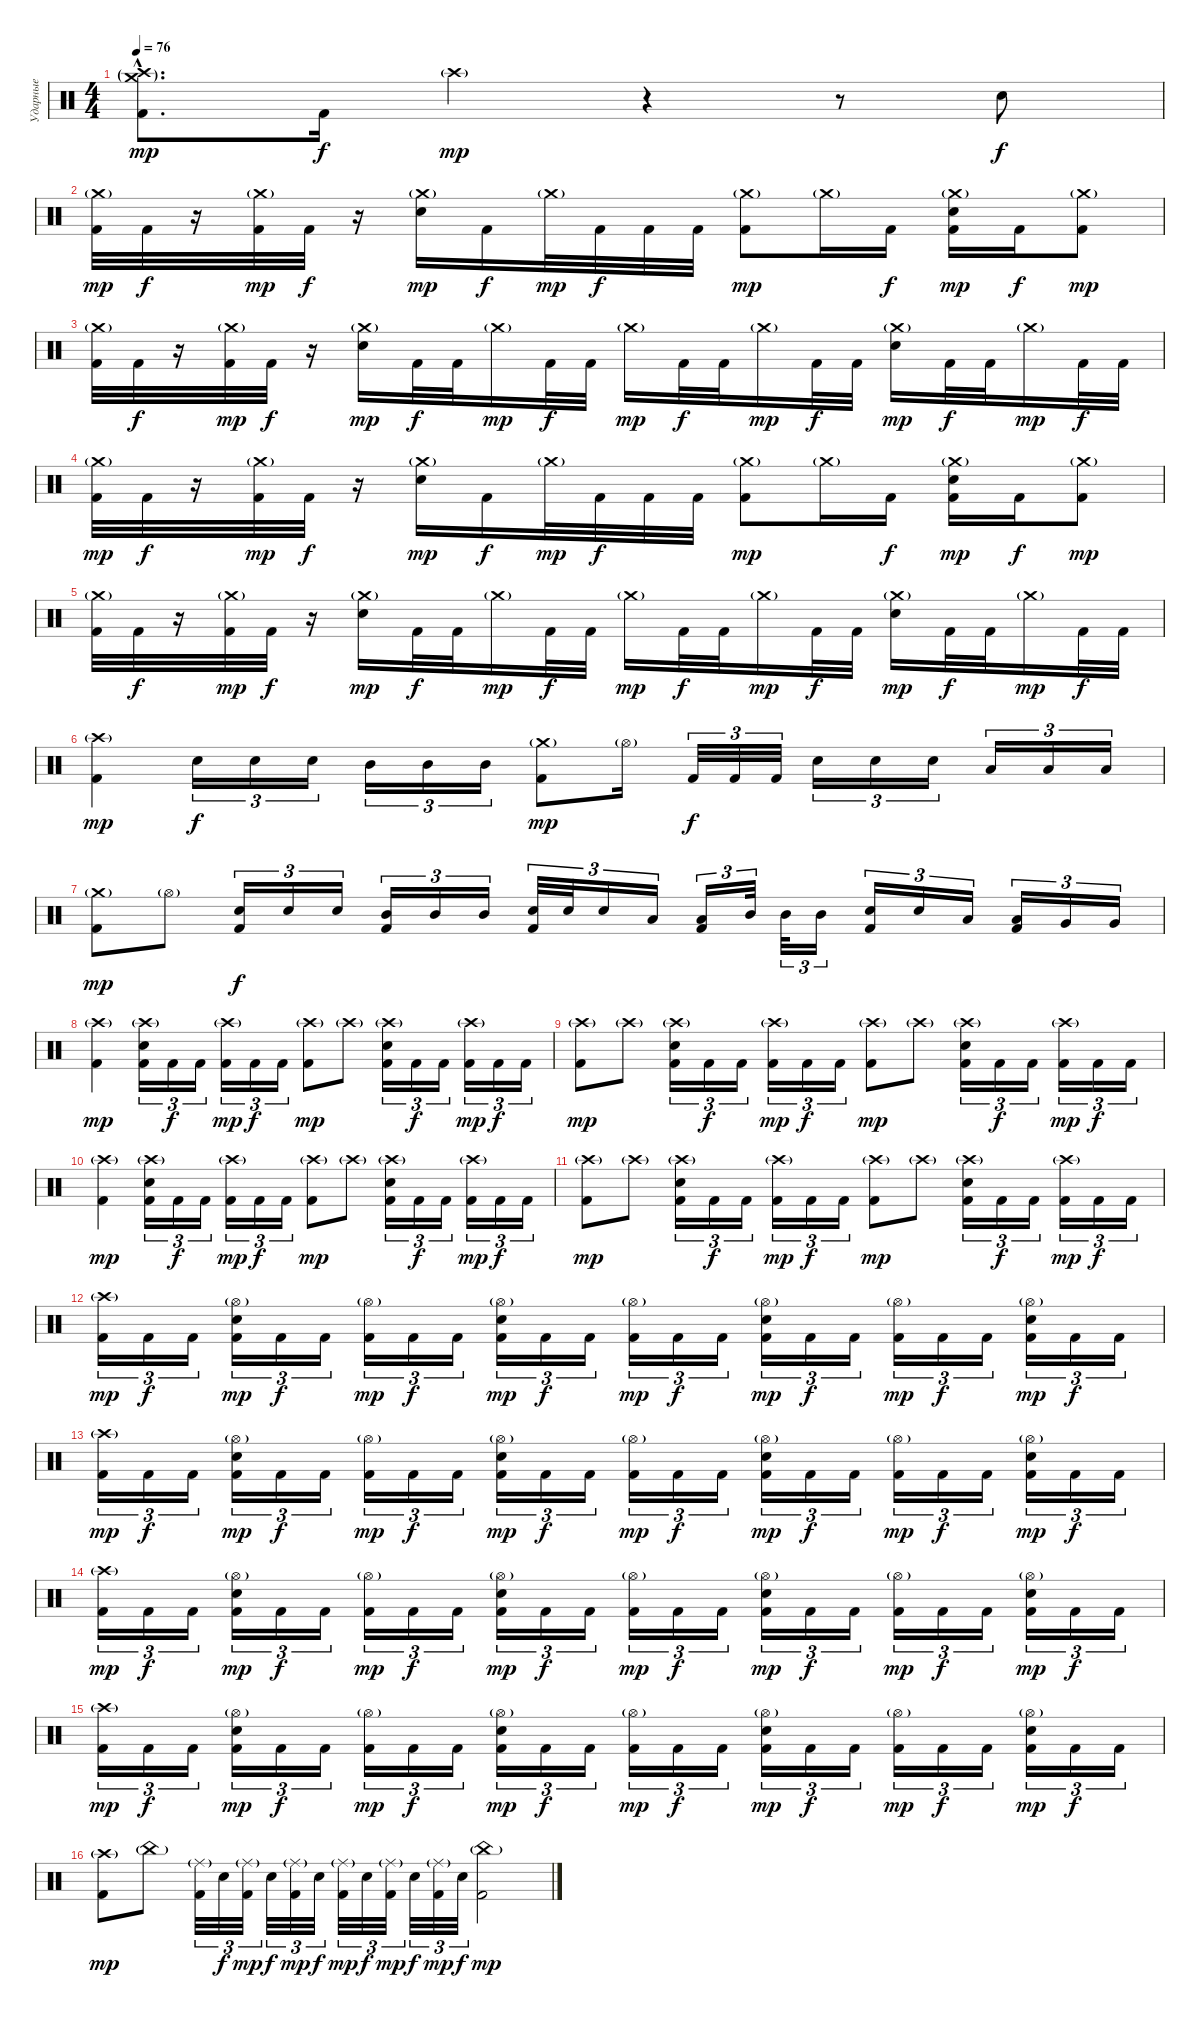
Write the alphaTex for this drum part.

\track ("Ударные" "Ударные") {instrument percussion}
\staff {score}
\articulation defaults
\ts (4 4)
\tempo 76
\clef neutral
\ks c
("Crash high (hit)"{g hac} "Crash medium (hit)"{g hac} "Kick (hit) 2"{hac}).8{d dy mp} "Kick (hit) 2".16{dy f} "Crash high (hit)"{g}.4{dy mp} r.4 r.8 "Electric Snare (hit)".8{dy f} |
("Crash medium (hit)"{g} "Kick (hit) 2").32{dy mp} "Kick (hit) 2".32{dy f} r.16 ("Crash medium (hit)"{g} "Kick (hit) 2").32{dy mp} "Kick (hit) 2".32{dy f} r.16 ("Crash medium (hit)"{g} "Electric Snare (hit)").16{dy mp} "Kick (hit) 2".16{dy f} "Crash medium (hit)"{g}.32{dy mp} "Kick (hit) 2".32{dy f} "Kick (hit) 2".32 "Kick (hit) 2".32 ("Crash medium (hit)"{g} "Kick (hit) 2").8{dy mp} "Crash medium (hit)"{g}.16 "Kick (hit) 2".16{dy f} ("Crash medium (hit)"{g} "Electric Snare (hit)" "Kick (hit) 2").16{dy mp} "Kick (hit) 2".16{dy f} ("Crash medium (hit)"{g} "Kick (hit) 2").8{dy mp} |
("Crash medium (hit)"{g} "Kick (hit) 2").32 "Kick (hit) 2".32{dy f} r.16 ("Crash medium (hit)"{g} "Kick (hit) 2").32{dy mp} "Kick (hit) 2".32{dy f} r.16 ("Crash medium (hit)"{g} "Electric Snare (hit)").16{dy mp} "Kick (hit) 2".32{dy f} "Kick (hit) 2".32 "Crash medium (hit)"{g}.16{dy mp} "Kick (hit) 2".32{dy f} "Kick (hit) 2".32 "Crash medium (hit)"{g}.16{dy mp} "Kick (hit) 2".32{dy f} "Kick (hit) 2".32 "Crash medium (hit)"{g}.16{dy mp} "Kick (hit) 2".32{dy f} "Kick (hit) 2".32 ("Crash medium (hit)"{g} "Electric Snare (hit)").16{dy mp} "Kick (hit) 2".32{dy f} "Kick (hit) 2".32 "Crash medium (hit)"{g}.16{dy mp} "Kick (hit) 2".32{dy f} "Kick (hit) 2".32 |
("Crash medium (hit)"{g} "Kick (hit) 2").32{dy mp} "Kick (hit) 2".32{dy f} r.16 ("Crash medium (hit)"{g} "Kick (hit) 2").32{dy mp} "Kick (hit) 2".32{dy f} r.16 ("Crash medium (hit)"{g} "Electric Snare (hit)").16{dy mp} "Kick (hit) 2".16{dy f} "Crash medium (hit)"{g}.32{dy mp} "Kick (hit) 2".32{dy f} "Kick (hit) 2".32 "Kick (hit) 2".32 ("Crash medium (hit)"{g} "Kick (hit) 2").8{dy mp} "Crash medium (hit)"{g}.16 "Kick (hit) 2".16{dy f} ("Crash medium (hit)"{g} "Electric Snare (hit)" "Kick (hit) 2").16{dy mp} "Kick (hit) 2".16{dy f} ("Crash medium (hit)"{g} "Kick (hit) 2").8{dy mp} |
("Crash medium (hit)"{g} "Kick (hit) 2").32 "Kick (hit) 2".32{dy f} r.16 ("Crash medium (hit)"{g} "Kick (hit) 2").32{dy mp} "Kick (hit) 2".32{dy f} r.16 ("Crash medium (hit)"{g} "Electric Snare (hit)").16{dy mp} "Kick (hit) 2".32{dy f} "Kick (hit) 2".32 "Crash medium (hit)"{g}.16{dy mp} "Kick (hit) 2".32{dy f} "Kick (hit) 2".32 "Crash medium (hit)"{g}.16{dy mp} "Kick (hit) 2".32{dy f} "Kick (hit) 2".32 "Crash medium (hit)"{g}.16{dy mp} "Kick (hit) 2".32{dy f} "Kick (hit) 2".32 ("Crash medium (hit)"{g} "Electric Snare (hit)").16{dy mp} "Kick (hit) 2".32{dy f} "Kick (hit) 2".32 "Crash medium (hit)"{g}.16{dy mp} "Kick (hit) 2".32{dy f} "Kick (hit) 2".32 |
("Crash high (hit)"{g} "Kick (hit) 2").4{dy mp} "Electric Snare (hit)".16{tu (3 2) dy f} "Electric Snare (hit)".16{tu (3 2)} "Electric Snare (hit)".16{tu (3 2)} "Mid Tom (hit)".16{tu (3 2)} "Mid Tom (hit)".16{tu (3 2)} "Mid Tom (hit)".16{tu (3 2)} ("Crash medium (hit)"{g} "Kick (hit) 2").8{dy mp} "Hi-Hat (open)"{g}.16 "Kick (hit) 2".32{tu (3 2) dy f} "Kick (hit) 2".32{tu (3 2)} "Kick (hit) 2".32{tu (3 2)} "Electric Snare (hit)".16{tu (3 2)} "Electric Snare (hit)".16{tu (3 2)} "Electric Snare (hit)".16{tu (3 2)} "Low Tom (hit)".16{tu (3 2)} "Low Tom (hit)".16{tu (3 2)} "Low Tom (hit)".16{tu (3 2)} |
("Crash medium (hit)"{g} "Kick (hit) 2").8{dy mp} "Hi-Hat (open)"{g}.8 ("Electric Snare (hit)" "Kick (hit) 2").16{tu (3 2) dy f} "Electric Snare (hit)".16{tu (3 2)} "Electric Snare (hit)".16{tu (3 2)} ("Mid Tom (hit)" "Kick (hit) 2").16{tu (3 2)} "Mid Tom (hit)".16{tu (3 2)} "Mid Tom (hit)".16{tu (3 2)} ("Electric Snare (hit)" "Kick (hit) 2").32{tu (3 2)} "Electric Snare (hit)".32{tu (3 2)} "Electric Snare (hit)".16{tu (3 2)} "Low Tom (hit)".16{tu (3 2)} ("Low Tom (hit)" "Kick (hit) 2").16{tu (3 2)} "Mid Tom (hit)".32{tu (3 2)} "Mid Tom (hit)".32{tu (3 2)} "Mid Tom (hit)".16{tu (3 2)} ("Electric Snare (hit)" "Kick (hit) 2").16{tu (3 2)} "Electric Snare (hit)".16{tu (3 2)} "Low Tom (hit)".16{tu (3 2)} ("Low Tom (hit)" "Kick (hit) 2").16{tu (3 2)} "Very Low Tom (hit)".16{tu (3 2)} "Very Low Tom (hit)".16{tu (3 2)} |
("Crash high (hit)"{g} "Kick (hit) 2").4{dy mp} ("Crash high (hit)"{g} "Electric Snare (hit)" "Kick (hit) 2").16{tu (3 2)} "Kick (hit) 2".16{tu (3 2) dy f} "Kick (hit) 2".16{tu (3 2)} ("Crash high (hit)"{g} "Kick (hit) 2").16{tu (3 2) dy mp} "Kick (hit) 2".16{tu (3 2) dy f} "Kick (hit) 2".16{tu (3 2)} ("Crash high (hit)"{g} "Kick (hit) 2").8{dy mp} "Crash high (hit)"{g}.8 ("Crash high (hit)"{g} "Electric Snare (hit)" "Kick (hit) 2").16{tu (3 2)} "Kick (hit) 2".16{tu (3 2) dy f} "Kick (hit) 2".16{tu (3 2)} ("Crash high (hit)"{g} "Kick (hit) 2").16{tu (3 2) dy mp} "Kick (hit) 2".16{tu (3 2) dy f} "Kick (hit) 2".16{tu (3 2)} |
("Crash high (hit)"{g} "Kick (hit) 2").8{dy mp} "Crash high (hit)"{g}.8 ("Crash high (hit)"{g} "Electric Snare (hit)" "Kick (hit) 2").16{tu (3 2)} "Kick (hit) 2".16{tu (3 2) dy f} "Kick (hit) 2".16{tu (3 2)} ("Crash high (hit)"{g} "Kick (hit) 2").16{tu (3 2) dy mp} "Kick (hit) 2".16{tu (3 2) dy f} "Kick (hit) 2".16{tu (3 2)} ("Crash high (hit)"{g} "Kick (hit) 2").8{dy mp} "Crash high (hit)"{g}.8 ("Crash high (hit)"{g} "Electric Snare (hit)" "Kick (hit) 2").16{tu (3 2)} "Kick (hit) 2".16{tu (3 2) dy f} "Kick (hit) 2".16{tu (3 2)} ("Crash high (hit)"{g} "Kick (hit) 2").16{tu (3 2) dy mp} "Kick (hit) 2".16{tu (3 2) dy f} "Kick (hit) 2".16{tu (3 2)} |
("Crash high (hit)"{g} "Kick (hit) 2").4{dy mp} ("Crash high (hit)"{g} "Electric Snare (hit)" "Kick (hit) 2").16{tu (3 2)} "Kick (hit) 2".16{tu (3 2) dy f} "Kick (hit) 2".16{tu (3 2)} ("Crash high (hit)"{g} "Kick (hit) 2").16{tu (3 2) dy mp} "Kick (hit) 2".16{tu (3 2) dy f} "Kick (hit) 2".16{tu (3 2)} ("Crash high (hit)"{g} "Kick (hit) 2").8{dy mp} "Crash high (hit)"{g}.8 ("Crash high (hit)"{g} "Electric Snare (hit)" "Kick (hit) 2").16{tu (3 2)} "Kick (hit) 2".16{tu (3 2) dy f} "Kick (hit) 2".16{tu (3 2)} ("Crash high (hit)"{g} "Kick (hit) 2").16{tu (3 2) dy mp} "Kick (hit) 2".16{tu (3 2) dy f} "Kick (hit) 2".16{tu (3 2)} |
("Crash high (hit)"{g} "Kick (hit) 2").8{dy mp} "Crash high (hit)"{g}.8 ("Crash high (hit)"{g} "Electric Snare (hit)" "Kick (hit) 2").16{tu (3 2)} "Kick (hit) 2".16{tu (3 2) dy f} "Kick (hit) 2".16{tu (3 2)} ("Crash high (hit)"{g} "Kick (hit) 2").16{tu (3 2) dy mp} "Kick (hit) 2".16{tu (3 2) dy f} "Kick (hit) 2".16{tu (3 2)} ("Crash high (hit)"{g} "Kick (hit) 2").8{dy mp} "Crash high (hit)"{g}.8 ("Crash high (hit)"{g} "Electric Snare (hit)" "Kick (hit) 2").16{tu (3 2)} "Kick (hit) 2".16{tu (3 2) dy f} "Kick (hit) 2".16{tu (3 2)} ("Crash high (hit)"{g} "Kick (hit) 2").16{tu (3 2) dy mp} "Kick (hit) 2".16{tu (3 2) dy f} "Kick (hit) 2".16{tu (3 2)} |
("Crash high (hit)"{g} "Kick (hit) 2").16{tu (3 2) dy mp} "Kick (hit) 2".16{tu (3 2) dy f} "Kick (hit) 2".16{tu (3 2)} ("Hi-Hat (open)"{g} "Electric Snare (hit)" "Kick (hit) 2").16{tu (3 2) dy mp} "Kick (hit) 2".16{tu (3 2) dy f} "Kick (hit) 2".16{tu (3 2)} ("Hi-Hat (open)"{g} "Kick (hit) 2").16{tu (3 2) dy mp} "Kick (hit) 2".16{tu (3 2) dy f} "Kick (hit) 2".16{tu (3 2)} ("Hi-Hat (open)"{g} "Electric Snare (hit)" "Kick (hit) 2").16{tu (3 2) dy mp} "Kick (hit) 2".16{tu (3 2) dy f} "Kick (hit) 2".16{tu (3 2)} ("Hi-Hat (open)"{g} "Kick (hit) 2").16{tu (3 2) dy mp} "Kick (hit) 2".16{tu (3 2) dy f} "Kick (hit) 2".16{tu (3 2)} ("Hi-Hat (open)"{g} "Electric Snare (hit)" "Kick (hit) 2").16{tu (3 2) dy mp} "Kick (hit) 2".16{tu (3 2) dy f} "Kick (hit) 2".16{tu (3 2)} ("Hi-Hat (open)"{g} "Kick (hit) 2").16{tu (3 2) dy mp} "Kick (hit) 2".16{tu (3 2) dy f} "Kick (hit) 2".16{tu (3 2)} ("Hi-Hat (open)"{g} "Electric Snare (hit)" "Kick (hit) 2").16{tu (3 2) dy mp} "Kick (hit) 2".16{tu (3 2) dy f} "Kick (hit) 2".16{tu (3 2)} |
("Crash high (hit)"{g} "Kick (hit) 2").16{tu (3 2) dy mp} "Kick (hit) 2".16{tu (3 2) dy f} "Kick (hit) 2".16{tu (3 2)} ("Hi-Hat (open)"{g} "Electric Snare (hit)" "Kick (hit) 2").16{tu (3 2) dy mp} "Kick (hit) 2".16{tu (3 2) dy f} "Kick (hit) 2".16{tu (3 2)} ("Hi-Hat (open)"{g} "Kick (hit) 2").16{tu (3 2) dy mp} "Kick (hit) 2".16{tu (3 2) dy f} "Kick (hit) 2".16{tu (3 2)} ("Hi-Hat (open)"{g} "Electric Snare (hit)" "Kick (hit) 2").16{tu (3 2) dy mp} "Kick (hit) 2".16{tu (3 2) dy f} "Kick (hit) 2".16{tu (3 2)} ("Hi-Hat (open)"{g} "Kick (hit) 2").16{tu (3 2) dy mp} "Kick (hit) 2".16{tu (3 2) dy f} "Kick (hit) 2".16{tu (3 2)} ("Hi-Hat (open)"{g} "Electric Snare (hit)" "Kick (hit) 2").16{tu (3 2) dy mp} "Kick (hit) 2".16{tu (3 2) dy f} "Kick (hit) 2".16{tu (3 2)} ("Hi-Hat (open)"{g} "Kick (hit) 2").16{tu (3 2) dy mp} "Kick (hit) 2".16{tu (3 2) dy f} "Kick (hit) 2".16{tu (3 2)} ("Hi-Hat (open)"{g} "Electric Snare (hit)" "Kick (hit) 2").16{tu (3 2) dy mp} "Kick (hit) 2".16{tu (3 2) dy f} "Kick (hit) 2".16{tu (3 2)} |
("Crash high (hit)"{g} "Kick (hit) 2").16{tu (3 2) dy mp} "Kick (hit) 2".16{tu (3 2) dy f} "Kick (hit) 2".16{tu (3 2)} ("Hi-Hat (open)"{g} "Electric Snare (hit)" "Kick (hit) 2").16{tu (3 2) dy mp} "Kick (hit) 2".16{tu (3 2) dy f} "Kick (hit) 2".16{tu (3 2)} ("Hi-Hat (open)"{g} "Kick (hit) 2").16{tu (3 2) dy mp} "Kick (hit) 2".16{tu (3 2) dy f} "Kick (hit) 2".16{tu (3 2)} ("Hi-Hat (open)"{g} "Electric Snare (hit)" "Kick (hit) 2").16{tu (3 2) dy mp} "Kick (hit) 2".16{tu (3 2) dy f} "Kick (hit) 2".16{tu (3 2)} ("Hi-Hat (open)"{g} "Kick (hit) 2").16{tu (3 2) dy mp} "Kick (hit) 2".16{tu (3 2) dy f} "Kick (hit) 2".16{tu (3 2)} ("Hi-Hat (open)"{g} "Electric Snare (hit)" "Kick (hit) 2").16{tu (3 2) dy mp} "Kick (hit) 2".16{tu (3 2) dy f} "Kick (hit) 2".16{tu (3 2)} ("Hi-Hat (open)"{g} "Kick (hit) 2").16{tu (3 2) dy mp} "Kick (hit) 2".16{tu (3 2) dy f} "Kick (hit) 2".16{tu (3 2)} ("Hi-Hat (open)"{g} "Electric Snare (hit)" "Kick (hit) 2").16{tu (3 2) dy mp} "Kick (hit) 2".16{tu (3 2) dy f} "Kick (hit) 2".16{tu (3 2)} |
("Crash high (hit)"{g} "Kick (hit) 2").16{tu (3 2) dy mp} "Kick (hit) 2".16{tu (3 2) dy f} "Kick (hit) 2".16{tu (3 2)} ("Hi-Hat (open)"{g} "Electric Snare (hit)" "Kick (hit) 2").16{tu (3 2) dy mp} "Kick (hit) 2".16{tu (3 2) dy f} "Kick (hit) 2".16{tu (3 2)} ("Hi-Hat (open)"{g} "Kick (hit) 2").16{tu (3 2) dy mp} "Kick (hit) 2".16{tu (3 2) dy f} "Kick (hit) 2".16{tu (3 2)} ("Hi-Hat (open)"{g} "Electric Snare (hit)" "Kick (hit) 2").16{tu (3 2) dy mp} "Kick (hit) 2".16{tu (3 2) dy f} "Kick (hit) 2".16{tu (3 2)} ("Hi-Hat (open)"{g} "Kick (hit) 2").16{tu (3 2) dy mp} "Kick (hit) 2".16{tu (3 2) dy f} "Kick (hit) 2".16{tu (3 2)} ("Hi-Hat (open)"{g} "Electric Snare (hit)" "Kick (hit) 2").16{tu (3 2) dy mp} "Kick (hit) 2".16{tu (3 2) dy f} "Kick (hit) 2".16{tu (3 2)} ("Hi-Hat (open)"{g} "Kick (hit) 2").16{tu (3 2) dy mp} "Kick (hit) 2".16{tu (3 2) dy f} "Kick (hit) 2".16{tu (3 2)} ("Hi-Hat (open)"{g} "Electric Snare (hit)" "Kick (hit) 2").16{tu (3 2) dy mp} "Kick (hit) 2".16{tu (3 2) dy f} "Kick (hit) 2".16{tu (3 2)} |
("Crash high (hit)"{g} "Kick (hit) 2").8{dy mp} "China (hit)"{g}.8 ("Ride (middle)"{g} "Kick (hit) 2").32{tu (3 2)} "Electric Snare (hit)".32{tu (3 2) dy f} ("Ride (middle)"{g} "Kick (hit) 2").32{tu (3 2) dy mp} "Electric Snare (hit)".32{tu (3 2) dy f} ("Ride (middle)"{g} "Kick (hit) 2").32{tu (3 2) dy mp} "Electric Snare (hit)".32{tu (3 2) dy f} ("Ride (middle)"{g} "Kick (hit) 2").32{tu (3 2) dy mp} "Electric Snare (hit)".32{tu (3 2) dy f} ("Ride (middle)"{g} "Kick (hit) 2").32{tu (3 2) dy mp} "Electric Snare (hit)".32{tu (3 2) dy f} ("Ride (middle)"{g} "Kick (hit) 2").32{tu (3 2) dy mp} "Electric Snare (hit)".32{tu (3 2) dy f} ("China (hit)"{g} "Kick (hit) 2").2{dy mp}
